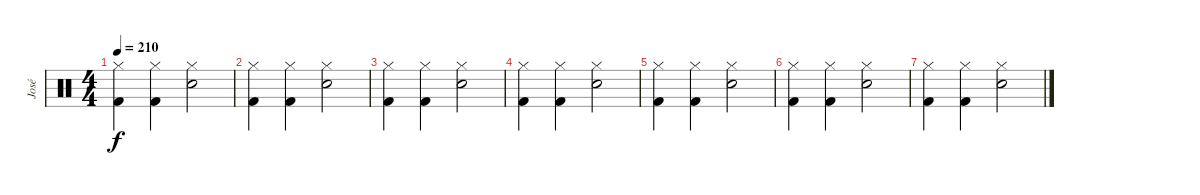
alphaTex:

\track ("José" "José") {instrument percussion}
\staff {score}
\articulation defaults
\ts (4 4)
\tempo 210
\clef neutral
\ks c
("Hi-Hat (closed)" "Kick (hit) 2").4{dy f} ("Hi-Hat (closed)" "Kick (hit) 2").4 ("Hi-Hat (closed)" "Electric Snare (hit)").2 |
("Hi-Hat (closed)" "Kick (hit) 2").4 ("Hi-Hat (closed)" "Kick (hit) 2").4 ("Hi-Hat (closed)" "Electric Snare (hit)").2 |
("Hi-Hat (closed)" "Kick (hit) 2").4 ("Hi-Hat (closed)" "Kick (hit) 2").4 ("Hi-Hat (closed)" "Electric Snare (hit)").2 |
("Hi-Hat (closed)" "Kick (hit) 2").4 ("Hi-Hat (closed)" "Kick (hit) 2").4 ("Hi-Hat (closed)" "Electric Snare (hit)").2 |
("Hi-Hat (closed)" "Kick (hit) 2").4 ("Hi-Hat (closed)" "Kick (hit) 2").4 ("Hi-Hat (closed)" "Electric Snare (hit)").2 |
("Hi-Hat (closed)" "Kick (hit) 2").4 ("Hi-Hat (closed)" "Kick (hit) 2").4 ("Hi-Hat (closed)" "Electric Snare (hit)").2 |
("Hi-Hat (closed)" "Kick (hit) 2").4 ("Hi-Hat (closed)" "Kick (hit) 2").4 ("Hi-Hat (closed)" "Electric Snare (hit)").2
